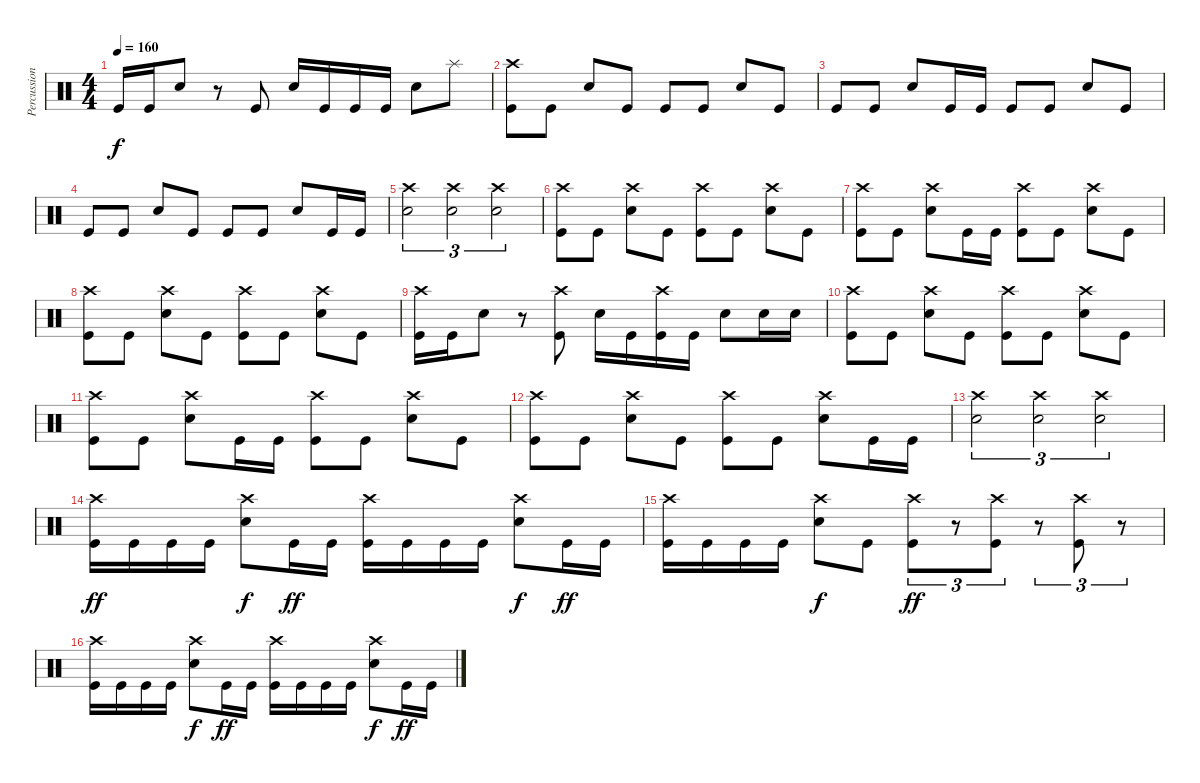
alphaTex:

\track ("Percussion" "Percussion") {instrument percussion}
\staff {score}
\articulation defaults
\ts (4 4)
\tempo 160
\clef neutral
\ks c "Kick (hit)".16{dy f} "Kick (hit)".16 "Electric Snare (hit)".8
r.8 "Kick (hit)".8 "Electric Snare (hit)".16 "Kick (hit)".16 "Kick (hit)".16 "Kick (hit)".16 "Electric Snare (hit)".8 "Splash (hit)".8 |
("Crash high (hit)" "Kick (hit)").8 "Kick (hit)".8 "Electric Snare (hit)".8 "Kick (hit)".8 "Kick (hit)".8 "Kick (hit)".8 "Electric Snare (hit)".8 "Kick (hit)".8 |
"Kick (hit)".8 "Kick (hit)".8 "Electric Snare (hit)".8 "Kick (hit)".16 "Kick (hit)".16 "Kick (hit)".8 "Kick (hit)".8 "Electric Snare (hit)".8 "Kick (hit)".8 |
"Kick (hit)".8 "Kick (hit)".8 "Electric Snare (hit)".8 "Kick (hit)".8 "Kick (hit)".8 "Kick (hit)".8 "Electric Snare (hit)".8 "Kick (hit)".16 "Kick (hit)".16 |
("Crash high (hit)" "Electric Snare (hit)").2{tu (3 2)} ("Crash high (hit)" "Electric Snare (hit)").2{tu (3 2)} ("Crash high (hit)" "Electric Snare (hit)").2{tu (3 2)} |
("Crash high (hit)" "Kick (hit)").8 "Kick (hit)".8 ("Crash high (hit)" "Electric Snare (hit)").8 "Kick (hit)".8 ("Crash high (hit)" "Kick (hit)").8 "Kick (hit)".8 ("Crash high (hit)" "Electric Snare (hit)").8 "Kick (hit)".8 |
("Crash high (hit)" "Kick (hit)").8 "Kick (hit)".8 ("Crash high (hit)" "Electric Snare (hit)").8 "Kick (hit)".16 "Kick (hit)".16 ("Crash high (hit)" "Kick (hit)").8 "Kick (hit)".8 ("Crash high (hit)" "Electric Snare (hit)").8 "Kick (hit)".8 |
("Crash high (hit)" "Kick (hit)").8 "Kick (hit)".8 ("Crash high (hit)" "Electric Snare (hit)").8 "Kick (hit)".8 ("Crash high (hit)" "Kick (hit)").8 "Kick (hit)".8 ("Crash high (hit)" "Electric Snare (hit)").8 "Kick (hit)".8 |
("Crash high (hit)" "Kick (hit)").16 "Kick (hit)".16 "Electric Snare (hit)".8 r.8 ("Crash high (hit)" "Kick (hit)").8 "Electric Snare (hit)".16 "Kick (hit)".16 ("Crash high (hit)" "Kick (hit)").16 "Kick (hit)".16 "Electric Snare (hit)".8 "Electric Snare (hit)".16 "Electric Snare (hit)".16 |
("Crash high (hit)" "Kick (hit)").8 "Kick (hit)".8 ("Crash high (hit)" "Electric Snare (hit)").8 "Kick (hit)".8 ("Crash high (hit)" "Kick (hit)").8 "Kick (hit)".8 ("Crash high (hit)" "Electric Snare (hit)").8 "Kick (hit)".8 |
("Crash high (hit)" "Kick (hit)").8 "Kick (hit)".8 ("Crash high (hit)" "Electric Snare (hit)").8 "Kick (hit)".16 "Kick (hit)".16 ("Crash high (hit)" "Kick (hit)").8 "Kick (hit)".8 ("Crash high (hit)" "Electric Snare (hit)").8 "Kick (hit)".8 |
("Crash high (hit)" "Kick (hit)").8 "Kick (hit)".8 ("Crash high (hit)" "Electric Snare (hit)").8 "Kick (hit)".8 ("Crash high (hit)" "Kick (hit)").8 "Kick (hit)".8 ("Crash high (hit)" "Electric Snare (hit)").8 "Kick (hit)".16 "Kick (hit)".16 |
("Crash high (hit)" "Electric Snare (hit)").2{tu (3 2)} ("Crash high (hit)" "Electric Snare (hit)").2{tu (3 2)} ("Crash high (hit)" "Electric Snare (hit)").2{tu (3 2)} |
("Crash high (hit)" "Kick (hit)").16{dy ff} "Kick (hit)".16 "Kick (hit)".16 "Kick (hit)".16 ("Crash high (hit)" "Electric Snare (hit)").8{dy f} "Kick (hit)".16{dy ff} "Kick (hit)".16 ("Crash high (hit)" "Kick (hit)").16 "Kick (hit)".16 "Kick (hit)".16 "Kick (hit)".16 ("Crash high (hit)" "Electric Snare (hit)").8{dy f} "Kick (hit)".16{dy ff} "Kick (hit)".16 |
("Crash high (hit)" "Kick (hit)").16 "Kick (hit)".16 "Kick (hit)".16 "Kick (hit)".16 ("Crash high (hit)" "Electric Snare (hit)").8{dy f} "Kick (hit)".8 ("Crash high (hit)" "Kick (hit)").8{tu (3 2) dy ff} r.8{tu (3 2)} ("Crash high (hit)" "Kick (hit)").8{tu (3 2)} r.8{tu (3 2)} ("Crash high (hit)" "Kick (hit)").8{tu (3 2)} r.8{tu (3 2)} |
("Crash high (hit)" "Kick (hit)").16 "Kick (hit)".16 "Kick (hit)".16 "Kick (hit)".16 ("Crash high (hit)" "Electric Snare (hit)").8{dy f} "Kick (hit)".16{dy ff} "Kick (hit)".16 ("Crash high (hit)" "Kick (hit)").16 "Kick (hit)".16 "Kick (hit)".16 "Kick (hit)".16 ("Crash high (hit)" "Electric Snare (hit)").8{dy f} "Kick (hit)".16{dy ff} "Kick (hit)".16
